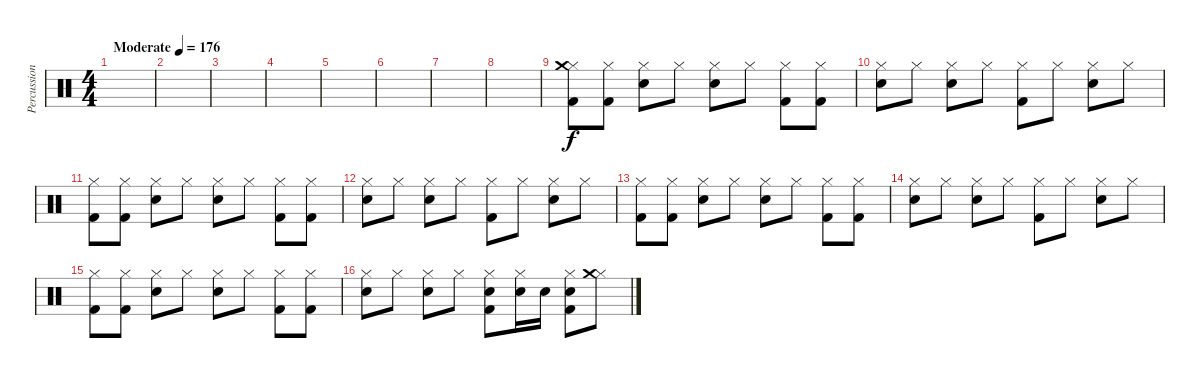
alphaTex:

\track ("Percussion" "Percussion") {instrument percussion}
\staff {score}
\articulation defaults
\ts (4 4)
\tempo (176 "Moderate")
\clef neutral
\ks c
|
|
|
|
|
|
|
|
("Hi-Hat (closed)" "Crash medium (hit)" "Kick (hit) 2").8 ("Hi-Hat (closed)" "Kick (hit) 2").8 ("Hi-Hat (closed)" "Snare (hit) 2").8 "Hi-Hat (closed)".8 ("Hi-Hat (closed)" "Snare (hit) 2").8 "Hi-Hat (closed)".8 ("Hi-Hat (closed)" "Kick (hit) 2").8 ("Hi-Hat (closed)" "Kick (hit) 2").8 |
("Hi-Hat (closed)" "Snare (hit) 2").8 "Hi-Hat (closed)".8 ("Hi-Hat (closed)" "Snare (hit) 2").8 "Hi-Hat (closed)".8 ("Hi-Hat (closed)" "Kick (hit) 2").8 "Hi-Hat (closed)".8 ("Hi-Hat (closed)" "Snare (hit) 2").8 "Hi-Hat (closed)".8 |
("Hi-Hat (closed)" "Kick (hit) 2").8 ("Hi-Hat (closed)" "Kick (hit) 2").8 ("Hi-Hat (closed)" "Snare (hit) 2").8 "Hi-Hat (closed)".8 ("Hi-Hat (closed)" "Snare (hit) 2").8 "Hi-Hat (closed)".8 ("Hi-Hat (closed)" "Kick (hit) 2").8 ("Hi-Hat (closed)" "Kick (hit) 2").8 |
("Hi-Hat (closed)" "Snare (hit) 2").8 "Hi-Hat (closed)".8 ("Hi-Hat (closed)" "Snare (hit) 2").8 "Hi-Hat (closed)".8 ("Hi-Hat (closed)" "Kick (hit) 2").8 "Hi-Hat (closed)".8 ("Hi-Hat (closed)" "Snare (hit) 2").8 "Hi-Hat (closed)".8 |
("Hi-Hat (closed)" "Kick (hit) 2").8 ("Hi-Hat (closed)" "Kick (hit) 2").8 ("Hi-Hat (closed)" "Snare (hit) 2").8 "Hi-Hat (closed)".8 ("Hi-Hat (closed)" "Snare (hit) 2").8 "Hi-Hat (closed)".8 ("Hi-Hat (closed)" "Kick (hit) 2").8 ("Hi-Hat (closed)" "Kick (hit) 2").8 |
("Hi-Hat (closed)" "Snare (hit) 2").8 "Hi-Hat (closed)".8 ("Hi-Hat (closed)" "Snare (hit) 2").8 "Hi-Hat (closed)".8 ("Hi-Hat (closed)" "Kick (hit) 2").8 "Hi-Hat (closed)".8 ("Hi-Hat (closed)" "Snare (hit) 2").8 "Hi-Hat (closed)".8 |
("Hi-Hat (closed)" "Kick (hit) 2").8 ("Hi-Hat (closed)" "Kick (hit) 2").8 ("Hi-Hat (closed)" "Snare (hit) 2").8 "Hi-Hat (closed)".8 ("Hi-Hat (closed)" "Snare (hit) 2").8 "Hi-Hat (closed)".8 ("Hi-Hat (closed)" "Kick (hit) 2").8 ("Hi-Hat (closed)" "Kick (hit) 2").8 |
("Hi-Hat (closed)" "Snare (hit) 2").8 "Hi-Hat (closed)".8 ("Hi-Hat (closed)" "Snare (hit) 2").8 "Hi-Hat (closed)".8 ("Hi-Hat (closed)" "Snare (hit) 2" "Kick (hit) 2").8 ("Hi-Hat (closed)" "Snare (hit) 2").16 "Snare (hit) 2".16 ("Hi-Hat (closed)" "Snare (hit) 2" "Kick (hit) 2").8 ("Hi-Hat (closed)" "Crash medium (hit)").8
